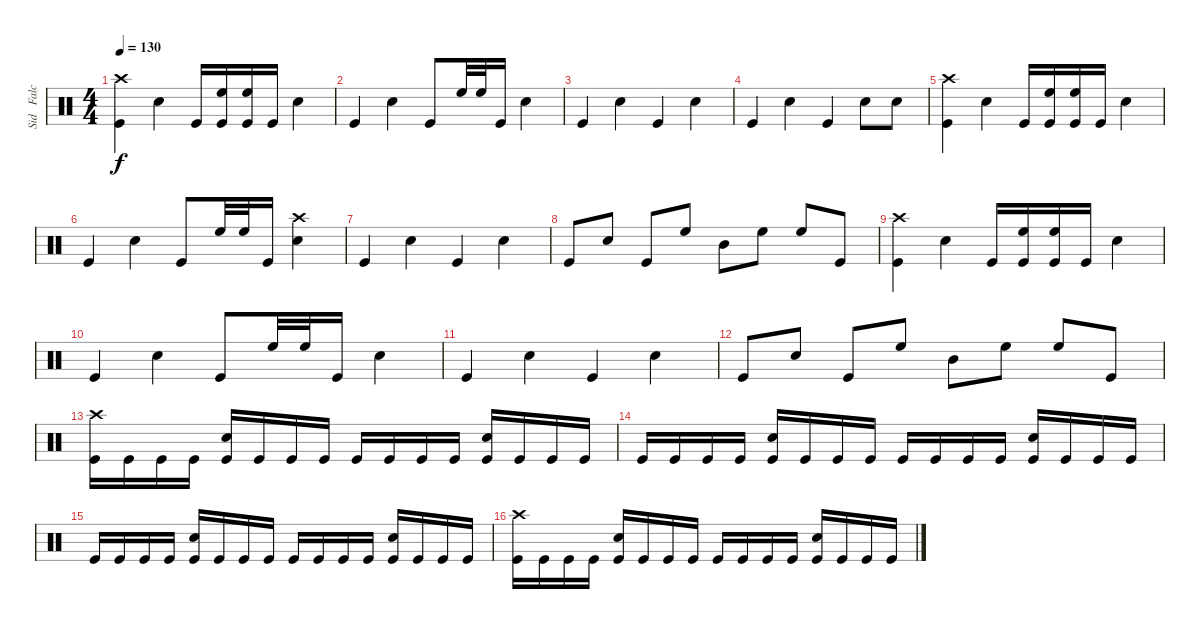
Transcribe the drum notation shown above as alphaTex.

\track ("Sid   Falck  - Drums" "Sid   Falc") {instrument percussion}
\staff {score}
\articulation defaults
\ts (4 4)
\tempo 130
\clef neutral
\ks c
("Crash high (hit)" "Kick (hit)").4{dy f} "Electric Snare (hit)".4 "Kick (hit)".16 ("High Floor Tom (hit)" "Kick (hit)").16 ("High Floor Tom (hit)" "Kick (hit)").16 "Kick (hit)".16 "Electric Snare (hit)".4 |
"Kick (hit)".4 "Electric Snare (hit)".4 "Kick (hit)".8 "High Floor Tom (hit)".32 "High Floor Tom (hit)".32 "Kick (hit)".16 "Electric Snare (hit)".4 |
"Kick (hit)".4 "Electric Snare (hit)".4 "Kick (hit)".4 "Electric Snare (hit)".4 |
"Kick (hit)".4 "Electric Snare (hit)".4 "Kick (hit)".4 "Electric Snare (hit)".8 "Electric Snare (hit)".8 |
("Crash high (hit)" "Kick (hit)").4 "Electric Snare (hit)".4 "Kick (hit)".16 ("High Floor Tom (hit)" "Kick (hit)").16 ("High Floor Tom (hit)" "Kick (hit)").16 "Kick (hit)".16 "Electric Snare (hit)".4 |
"Kick (hit)".4 "Electric Snare (hit)".4 "Kick (hit)".8 "High Floor Tom (hit)".32 "High Floor Tom (hit)".32 "Kick (hit)".16 ("Crash high (hit)" "Electric Snare (hit)").4 |
"Kick (hit)".4 "Electric Snare (hit)".4 "Kick (hit)".4 "Electric Snare (hit)".4 |
"Kick (hit)".8 "Electric Snare (hit)".8 "Kick (hit)".8 "High Floor Tom (hit)".8 "Mid Tom (hit)".8 "High Floor Tom (hit)".8 "High Floor Tom (hit)".8 "Kick (hit)".8 |
("Crash high (hit)" "Kick (hit)").4 "Electric Snare (hit)".4 "Kick (hit)".16 ("High Floor Tom (hit)" "Kick (hit)").16 ("High Floor Tom (hit)" "Kick (hit)").16 "Kick (hit)".16 "Electric Snare (hit)".4 |
"Kick (hit)".4 "Electric Snare (hit)".4 "Kick (hit)".8 "High Floor Tom (hit)".32 "High Floor Tom (hit)".32 "Kick (hit)".16 "Electric Snare (hit)".4 |
"Kick (hit)".4 "Electric Snare (hit)".4 "Kick (hit)".4 "Electric Snare (hit)".4 |
"Kick (hit)".8 "Electric Snare (hit)".8 "Kick (hit)".8 "High Floor Tom (hit)".8 "Mid Tom (hit)".8 "High Floor Tom (hit)".8 "High Floor Tom (hit)".8 "Kick (hit)".8 |
("Crash high (hit)" "Kick (hit)").16 "Kick (hit)".16 "Kick (hit)".16 "Kick (hit)".16 ("Electric Snare (hit)" "Kick (hit)").16 "Kick (hit)".16 "Kick (hit)".16 "Kick (hit)".16 "Kick (hit)".16 "Kick (hit)".16 "Kick (hit)".16 "Kick (hit)".16 ("Electric Snare (hit)" "Kick (hit)").16 "Kick (hit)".16 "Kick (hit)".16 "Kick (hit)".16 |
"Kick (hit)".16 "Kick (hit)".16 "Kick (hit)".16 "Kick (hit)".16 ("Electric Snare (hit)" "Kick (hit)").16 "Kick (hit)".16 "Kick (hit)".16 "Kick (hit)".16 "Kick (hit)".16 "Kick (hit)".16 "Kick (hit)".16 "Kick (hit)".16 ("Electric Snare (hit)" "Kick (hit)").16 "Kick (hit)".16 "Kick (hit)".16 "Kick (hit)".16 |
"Kick (hit)".16 "Kick (hit)".16 "Kick (hit)".16 "Kick (hit)".16 ("Electric Snare (hit)" "Kick (hit)").16 "Kick (hit)".16 "Kick (hit)".16 "Kick (hit)".16 "Kick (hit)".16 "Kick (hit)".16 "Kick (hit)".16 "Kick (hit)".16 ("Electric Snare (hit)" "Kick (hit)").16 "Kick (hit)".16 "Kick (hit)".16 "Kick (hit)".16 |
("Crash high (hit)" "Kick (hit)").16 "Kick (hit)".16 "Kick (hit)".16 "Kick (hit)".16 ("Electric Snare (hit)" "Kick (hit)").16 "Kick (hit)".16 "Kick (hit)".16 "Kick (hit)".16 "Kick (hit)".16 "Kick (hit)".16 "Kick (hit)".16 "Kick (hit)".16 ("Electric Snare (hit)" "Kick (hit)").16 "Kick (hit)".16 "Kick (hit)".16 "Kick (hit)".16
